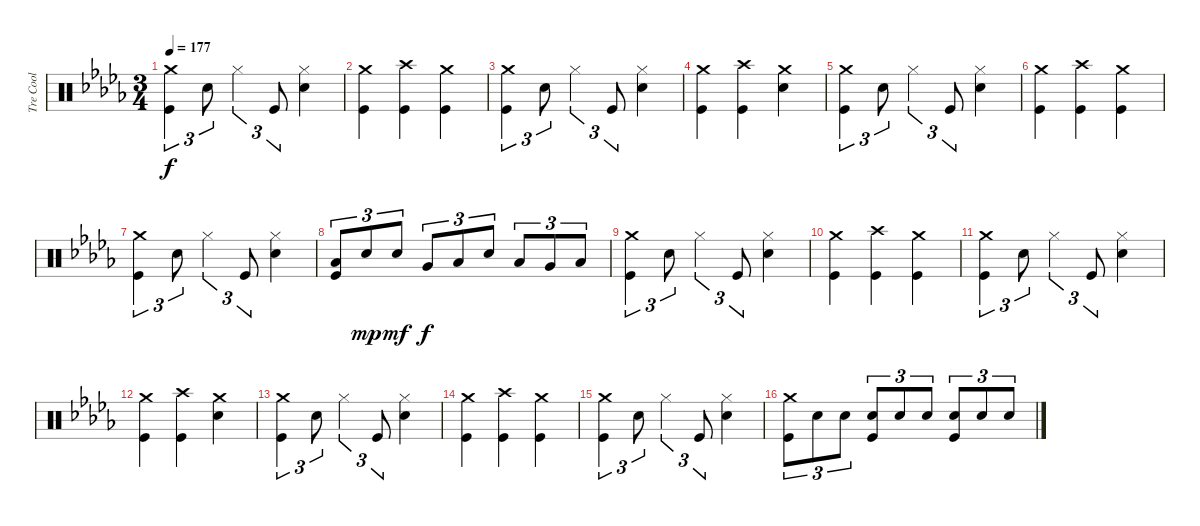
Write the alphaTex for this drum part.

\track ("Tre Cool" "Tre Cool") {instrument percussion}
\staff {score}
\articulation defaults
\ts (3 4)
\tempo 177
\clef neutral
\ks db
("Crash medium (hit)" "Kick (hit)").4{tu (3 2) dy f} "Electric Snare (hit)".8{tu (3 2)} "Hi-Hat (closed)".4{tu (3 2)} "Kick (hit)".8{tu (3 2)} ("Hi-Hat (closed)" "Electric Snare (hit)").4 |
("Crash medium (hit)" "Kick (hit)").4 ("Crash high (hit)" "Kick (hit)").4 ("Crash medium (hit)" "Kick (hit)").4 |
("Crash medium (hit)" "Kick (hit)").4{tu (3 2)} "Electric Snare (hit)".8{tu (3 2)} "Hi-Hat (closed)".4{tu (3 2)} "Kick (hit)".8{tu (3 2)} ("Hi-Hat (closed)" "Electric Snare (hit)").4 |
("Crash medium (hit)" "Kick (hit)").4 ("Crash high (hit)" "Kick (hit)").4 ("Crash medium (hit)" "Electric Snare (hit)").4 |
("Crash medium (hit)" "Kick (hit)").4{tu (3 2)} "Electric Snare (hit)".8{tu (3 2)} "Hi-Hat (closed)".4{tu (3 2)} "Kick (hit)".8{tu (3 2)} ("Hi-Hat (closed)" "Electric Snare (hit)").4 |
("Crash medium (hit)" "Kick (hit)").4 ("Crash high (hit)" "Kick (hit)").4 ("Crash medium (hit)" "Kick (hit)").4 |
("Crash medium (hit)" "Kick (hit)").4{tu (3 2)} "Electric Snare (hit)".8{tu (3 2)} "Hi-Hat (closed)".4{tu (3 2)} "Kick (hit)".8{tu (3 2)} ("Hi-Hat (closed)" "Electric Snare (hit)").4 |
("Low Tom (hit)" "Kick (hit)").8{tu (3 2)} "Electric Snare (hit)".8{tu (3 2) dy mp} "Electric Snare (hit)".8{tu (3 2) dy mf} "Very Low Tom (hit)".8{tu (3 2) dy f} "Low Floor Tom (hit)".8{tu (3 2)} "Electric Snare (hit)".8{tu (3 2)} "Low Tom (hit)".8{tu (3 2)} "Very Low Tom (hit)".8{tu (3 2)} "Low Floor Tom (hit)".8{tu (3 2)} |
("Crash medium (hit)" "Kick (hit)").4{tu (3 2)} "Electric Snare (hit)".8{tu (3 2)} "Hi-Hat (closed)".4{tu (3 2)} "Kick (hit)".8{tu (3 2)} ("Hi-Hat (closed)" "Electric Snare (hit)").4 |
("Crash medium (hit)" "Kick (hit)").4 ("Crash high (hit)" "Kick (hit)").4 ("Crash medium (hit)" "Kick (hit)").4 |
("Crash medium (hit)" "Kick (hit)").4{tu (3 2)} "Electric Snare (hit)".8{tu (3 2)} "Hi-Hat (closed)".4{tu (3 2)} "Kick (hit)".8{tu (3 2)} ("Hi-Hat (closed)" "Electric Snare (hit)").4 |
("Crash medium (hit)" "Kick (hit)").4 ("Crash high (hit)" "Kick (hit)").4 ("Crash medium (hit)" "Electric Snare (hit)").4 |
("Crash medium (hit)" "Kick (hit)").4{tu (3 2)} "Electric Snare (hit)".8{tu (3 2)} "Hi-Hat (closed)".4{tu (3 2)} "Kick (hit)".8{tu (3 2)} ("Hi-Hat (closed)" "Electric Snare (hit)").4 |
("Crash medium (hit)" "Kick (hit)").4 ("Crash high (hit)" "Kick (hit)").4 ("Crash medium (hit)" "Kick (hit)").4 |
("Crash medium (hit)" "Kick (hit)").4{tu (3 2)} "Electric Snare (hit)".8{tu (3 2)} "Hi-Hat (closed)".4{tu (3 2)} "Kick (hit)".8{tu (3 2)} ("Hi-Hat (closed)" "Electric Snare (hit)").4 |
("Crash medium (hit)" "Kick (hit)").8{tu (3 2)} "Electric Snare (hit)".8{tu (3 2)} "Electric Snare (hit)".8{tu (3 2)} ("Electric Snare (hit)" "Kick (hit)").8{tu (3 2)} "Electric Snare (hit)".8{tu (3 2)} "Electric Snare (hit)".8{tu (3 2)} ("Electric Snare (hit)" "Kick (hit)").8{tu (3 2)} "Electric Snare (hit)".8{tu (3 2)} "Electric Snare (hit)".8{tu (3 2)}
